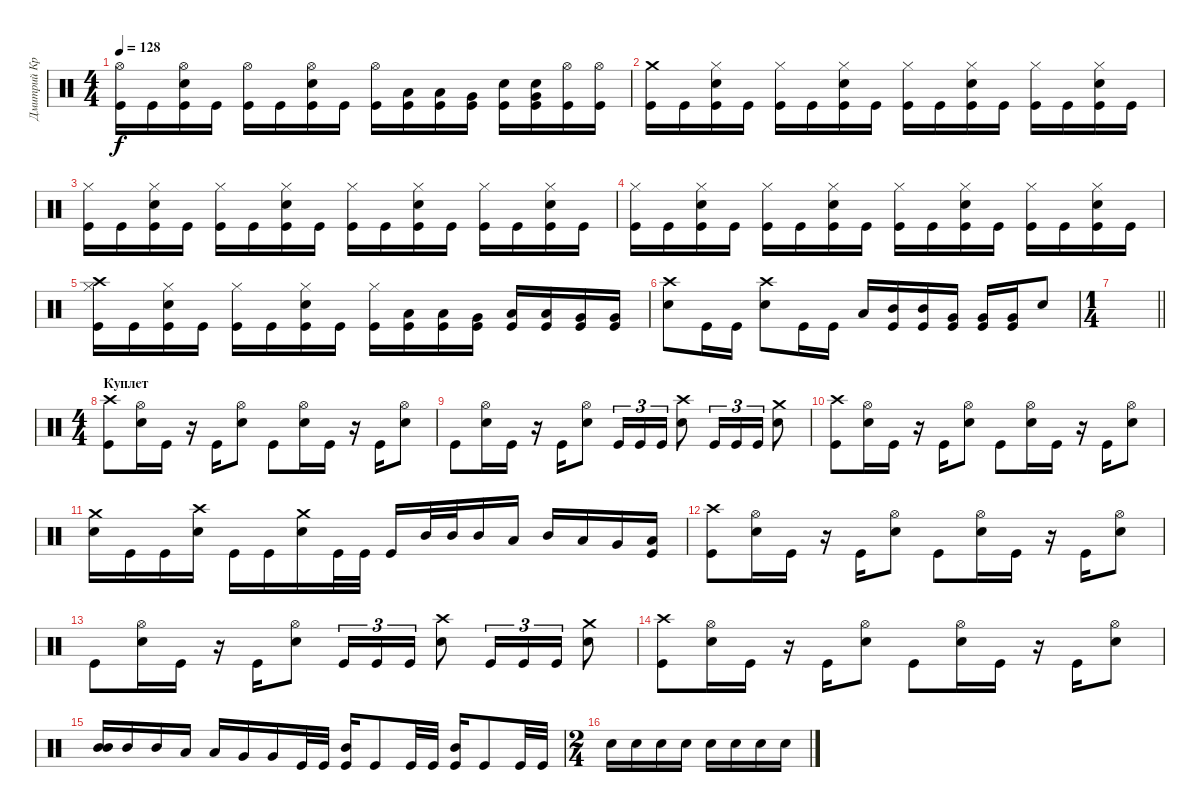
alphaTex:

\track ("Дмитрий Кривенков" "Дмитрий Кр") {instrument percussion}
\staff {score}
\articulation defaults
\ts (4 4)
\tempo 128
\clef neutral
\ks c
("Hi-Hat (open)" "Kick (hit)").16{dy f} "Kick (hit)".16 ("Snare (hit) 2" "Hi-Hat (open)" "Kick (hit)").16 "Kick (hit)".16 ("Hi-Hat (open)" "Kick (hit)").16 "Kick (hit)".16 ("Snare (hit) 2" "Hi-Hat (open)" "Kick (hit)").16 "Kick (hit)".16 ("Hi-Hat (open)" "Kick (hit)").16 ("Low Tom (hit)" "Kick (hit)").16 ("Low Tom (hit)" "Kick (hit)").16 ("Very Low Tom (hit)" "Kick (hit)").16 ("Snare (hit) 2" "Kick (hit)").16 ("Snare (hit) 2" "Very Low Tom (hit)" "Kick (hit)").16 ("Hi-Hat (open)" "Kick (hit)").16 ("Hi-Hat (open)" "Kick (hit)").16 |
("Crash medium (hit)" "Kick (hit)").16 "Kick (hit)".16 ("Snare (hit) 2" "Hi-Hat (closed)" "Kick (hit)").16 "Kick (hit)".16 ("Hi-Hat (closed)" "Kick (hit)").16 "Kick (hit)".16 ("Snare (hit) 2" "Hi-Hat (closed)" "Kick (hit)").16 "Kick (hit)".16 ("Hi-Hat (closed)" "Kick (hit)").16 "Kick (hit)".16 ("Snare (hit) 2" "Hi-Hat (closed)" "Kick (hit)").16 "Kick (hit)".16 ("Hi-Hat (closed)" "Kick (hit)").16 "Kick (hit)".16 ("Snare (hit) 2" "Hi-Hat (closed)" "Kick (hit)").16 "Kick (hit)".16 |
("Hi-Hat (closed)" "Kick (hit)").16 "Kick (hit)".16 ("Snare (hit) 2" "Hi-Hat (closed)" "Kick (hit)").16 "Kick (hit)".16 ("Hi-Hat (closed)" "Kick (hit)").16 "Kick (hit)".16 ("Snare (hit) 2" "Hi-Hat (closed)" "Kick (hit)").16 "Kick (hit)".16 ("Hi-Hat (closed)" "Kick (hit)").16 "Kick (hit)".16 ("Snare (hit) 2" "Hi-Hat (closed)" "Kick (hit)").16 "Kick (hit)".16 ("Hi-Hat (closed)" "Kick (hit)").16 "Kick (hit)".16 ("Snare (hit) 2" "Hi-Hat (closed)" "Kick (hit)").16 "Kick (hit)".16 |
("Hi-Hat (closed)" "Kick (hit)").16 "Kick (hit)".16 ("Snare (hit) 2" "Hi-Hat (closed)" "Kick (hit)").16 "Kick (hit)".16 ("Hi-Hat (closed)" "Kick (hit)").16 "Kick (hit)".16 ("Snare (hit) 2" "Hi-Hat (closed)" "Kick (hit)").16 "Kick (hit)".16 ("Hi-Hat (closed)" "Kick (hit)").16 "Kick (hit)".16 ("Snare (hit) 2" "Hi-Hat (closed)" "Kick (hit)").16 "Kick (hit)".16 ("Hi-Hat (closed)" "Kick (hit)").16 "Kick (hit)".16 ("Snare (hit) 2" "Hi-Hat (closed)" "Kick (hit)").16 "Kick (hit)".16 |
("Crash high (hit)" "Hi-Hat (closed)" "Kick (hit)").16 "Kick (hit)".16 ("Snare (hit) 2" "Hi-Hat (closed)" "Kick (hit)").16 "Kick (hit)".16 ("Hi-Hat (closed)" "Kick (hit)").16 "Kick (hit)".16 ("Snare (hit) 2" "Hi-Hat (closed)" "Kick (hit)").16 "Kick (hit)".16 ("Hi-Hat (closed)" "Kick (hit)").16 ("Low Tom (hit)" "Kick (hit)").16 ("Low Tom (hit)" "Kick (hit)").16 ("Very Low Tom (hit)" "Kick (hit)").16 ("Low Tom (hit)" "Kick (hit)").16 ("Low Tom (hit)" "Kick (hit)").16 ("Very Low Tom (hit)" "Kick (hit)").16 ("Very Low Tom (hit)" "Kick (hit)").16 |
("Snare (hit) 2" "Crash high (hit)").8 "Kick (hit)".16 "Kick (hit)".16 ("Snare (hit) 2" "Crash high (hit)").8 "Kick (hit)".16 "Kick (hit)".16 "Low Tom (hit)".16 ("Mid Tom (hit)" "Kick (hit)").16 ("Mid Tom (hit)" "Kick (hit)").16 ("Very Low Tom (hit)" "Kick (hit)").16 ("Very Low Tom (hit)" "Kick (hit)").16 ("Very Low Tom (hit)" "Kick (hit)").16 "Snare (hit) 2".8 |
\ts (1 4)
\barLineRight lightlight
|
\ts (4 4)
\section ("" "Куплет")
("Crash high (hit)" "Kick (hit)").8 ("Snare (hit) 2" "Hi-Hat (open)").16 "Kick (hit)".16 r.16 "Kick (hit)".16 ("Snare (hit) 2" "Hi-Hat (open)").8 "Kick (hit)".8 ("Snare (hit) 2" "Hi-Hat (open)").16 "Kick (hit)".16 r.16 "Kick (hit)".16 ("Snare (hit) 2" "Hi-Hat (open)").8 |
"Kick (hit)".8 ("Snare (hit) 2" "Hi-Hat (open)").16 "Kick (hit)".16 r.16 "Kick (hit)".16 ("Snare (hit) 2" "Hi-Hat (open)").8 "Kick (hit)".16{tu (3 2)} "Kick (hit)".16{tu (3 2)} "Kick (hit)".16{tu (3 2)} ("Snare (hit) 2" "Crash high (hit)").8 "Kick (hit)".16{tu (3 2)} "Kick (hit)".16{tu (3 2)} "Kick (hit)".16{tu (3 2)} ("Snare (hit) 2" "Crash medium (hit)").8 |
("Crash high (hit)" "Kick (hit)").8 ("Snare (hit) 2" "Hi-Hat (open)").16 "Kick (hit)".16 r.16 "Kick (hit)".16 ("Snare (hit) 2" "Hi-Hat (open)").8 "Kick (hit)".8 ("Snare (hit) 2" "Hi-Hat (open)").16 "Kick (hit)".16 r.16 "Kick (hit)".16 ("Snare (hit) 2" "Hi-Hat (open)").8 |
("Crash medium (hit)" "Snare (hit) 2").16 "Kick (hit)".16 "Kick (hit)".16 ("Crash high (hit)" "Snare (hit) 2").16 "Kick (hit)".16 "Kick (hit)".16 ("Crash medium (hit)" "Snare (hit) 2").16 "Kick (hit)".32 "Kick (hit)".32 "Kick (hit)".16 "Mid Tom (hit)".32 "Mid Tom (hit)".32 "Mid Tom (hit)".16 "Low Tom (hit)".16 "Mid Tom (hit)".16 "Low Tom (hit)".16 "Very Low Tom (hit)".16 ("Low Tom (hit)" "Kick (hit)").16 |
("Crash high (hit)" "Kick (hit)").8 ("Snare (hit) 2" "Hi-Hat (open)").16 "Kick (hit)".16 r.16 "Kick (hit)".16 ("Snare (hit) 2" "Hi-Hat (open)").8 "Kick (hit)".8 ("Snare (hit) 2" "Hi-Hat (open)").16 "Kick (hit)".16 r.16 "Kick (hit)".16 ("Snare (hit) 2" "Hi-Hat (open)").8 |
"Kick (hit)".8 ("Snare (hit) 2" "Hi-Hat (open)").16 "Kick (hit)".16 r.16 "Kick (hit)".16 ("Snare (hit) 2" "Hi-Hat (open)").8 "Kick (hit)".16{tu (3 2)} "Kick (hit)".16{tu (3 2)} "Kick (hit)".16{tu (3 2)} ("Snare (hit) 2" "Crash high (hit)").8 "Kick (hit)".16{tu (3 2)} "Kick (hit)".16{tu (3 2)} "Kick (hit)".16{tu (3 2)} ("Snare (hit) 2" "Crash medium (hit)").8 |
("Crash high (hit)" "Kick (hit)").8 ("Snare (hit) 2" "Hi-Hat (open)").16 "Kick (hit)".16 r.16 "Kick (hit)".16 ("Snare (hit) 2" "Hi-Hat (open)").8 "Kick (hit)".8 ("Snare (hit) 2" "Hi-Hat (open)").16 "Kick (hit)".16 r.16 "Kick (hit)".16 ("Snare (hit) 2" "Hi-Hat (open)").8 |
("Mid Tom (hit)" "Mid Tom (hit)").16{bd 120} "Mid Tom (hit)".16 "Mid Tom (hit)".16 "Low Tom (hit)".16 "Low Tom (hit)".16 "Very Low Tom (hit)".16 "Very Low Tom (hit)".16 "Kick (hit)".32 "Kick (hit)".32 ("Kick (hit)" "Mid Tom (hit)").16 "Kick (hit)".8 "Kick (hit)".32 "Kick (hit)".32 ("Kick (hit)" "Mid Tom (hit)").16 "Kick (hit)".8 "Kick (hit)".32 "Kick (hit)".32 |
\ts (2 4)
"Snare (hit) 2".16 "Snare (hit) 2".16 "Snare (hit) 2".16 "Snare (hit) 2".16 "Snare (hit) 2".16 "Snare (hit) 2".16 "Snare (hit) 2".16 "Snare (hit) 2".16
